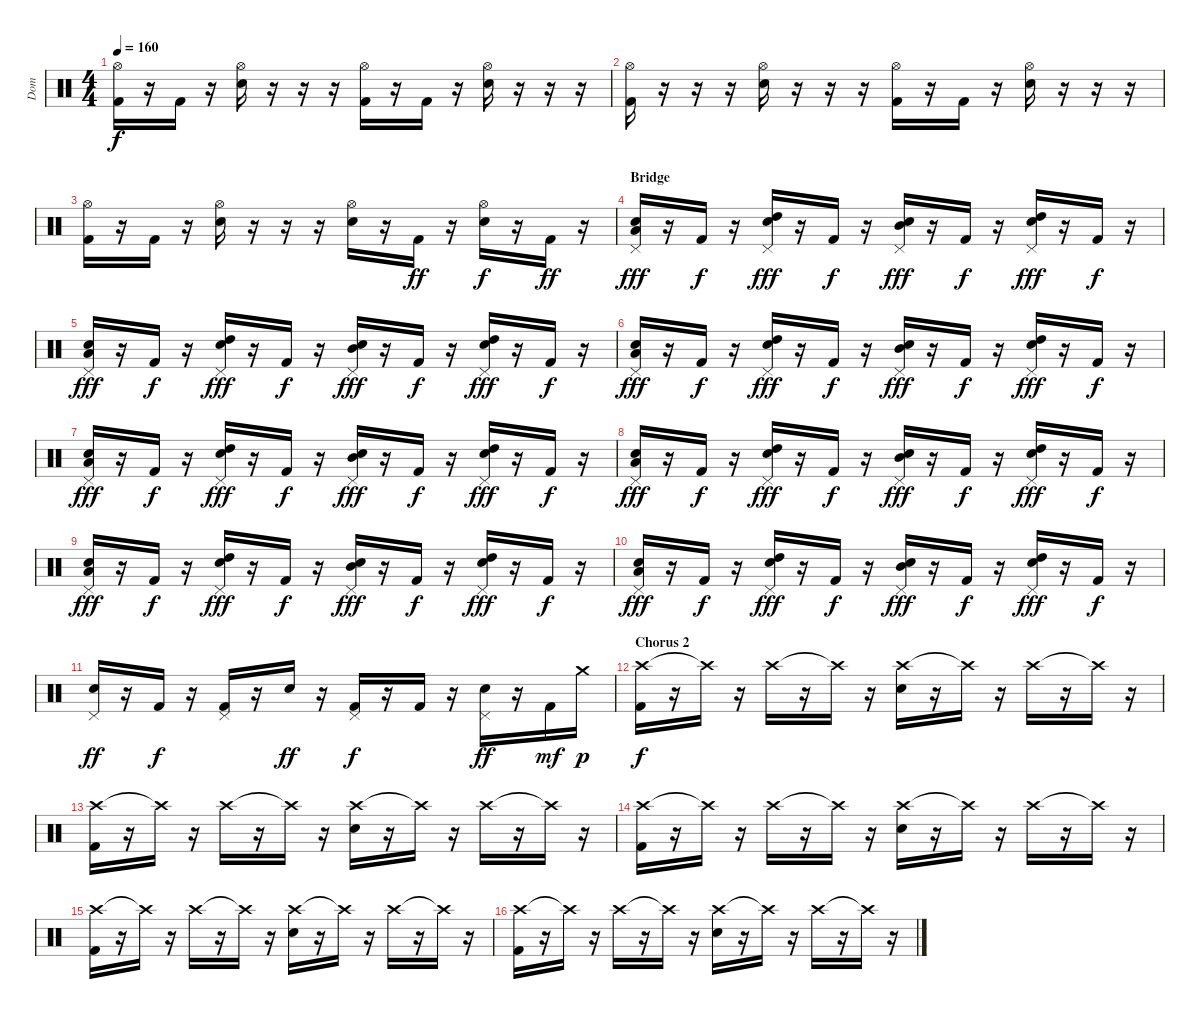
\track ("Dom" "Dom") {instrument percussion}
\staff {score}
\articulation defaults
\ts (4 4)
\tempo 160
\clef neutral
\ks c
("Hi-Hat (open)" "Kick (hit) 2").16{dy f} r.16 "Kick (hit) 2".16 r.16 ("Hi-Hat (open)" "Electric Snare (hit)").16 r.16 r.16 r.16 ("Hi-Hat (open)" "Kick (hit) 2").16 r.16 "Kick (hit) 2".16 r.16 ("Hi-Hat (open)" "Electric Snare (hit)").16 r.16 r.16 r.16 |
("Hi-Hat (open)" "Kick (hit) 2").16 r.16 r.16 r.16 ("Hi-Hat (open)" "Electric Snare (hit)").16 r.16 r.16 r.16 ("Hi-Hat (open)" "Kick (hit) 2").16 r.16 "Kick (hit) 2".16 r.16 ("Hi-Hat (open)" "Electric Snare (hit)").16 r.16 r.16 r.16 |
("Hi-Hat (open)" "Kick (hit) 2").16 r.16 "Kick (hit) 2".16 r.16 ("Hi-Hat (open)" "Electric Snare (hit)").16 r.16 r.16 r.16 ("Hi-Hat (open)" "Electric Snare (hit)").16 r.16 "Kick (hit) 2".16{dy ff} r.16 ("Hi-Hat (open)" "Electric Snare (hit)").16{dy f} r.16 "Kick (hit) 2".16{dy ff} r.16 |
\section ("" "Bridge")
("Pedal Hi-Hat (hit)" "Low Tom (hit)" "Electric Snare (hit)").16{dy fff} r.16 "Kick (hit) 2".16{dy f} r.16 ("Pedal Hi-Hat (hit)" "High Tom (hit)" "Electric Snare (hit)").16{dy fff} r.16 "Kick (hit) 2".16{dy f} r.16 ("Pedal Hi-Hat (hit)" "Mid Tom (hit)" "Electric Snare (hit)").16{dy fff} r.16 "Kick (hit) 2".16{dy f} r.16 ("Pedal Hi-Hat (hit)" "High Tom (hit)" "Electric Snare (hit)").16{dy fff} r.16 "Kick (hit) 2".16{dy f} r.16 |
("Pedal Hi-Hat (hit)" "Low Tom (hit)" "Electric Snare (hit)").16{dy fff} r.16 "Kick (hit) 2".16{dy f} r.16 ("Pedal Hi-Hat (hit)" "High Tom (hit)" "Electric Snare (hit)").16{dy fff} r.16 "Kick (hit) 2".16{dy f} r.16 ("Pedal Hi-Hat (hit)" "Mid Tom (hit)" "Electric Snare (hit)").16{dy fff} r.16 "Kick (hit) 2".16{dy f} r.16 ("Pedal Hi-Hat (hit)" "High Tom (hit)" "Electric Snare (hit)").16{dy fff} r.16 "Kick (hit) 2".16{dy f} r.16 |
("Pedal Hi-Hat (hit)" "Low Tom (hit)" "Electric Snare (hit)").16{dy fff} r.16 "Kick (hit) 2".16{dy f} r.16 ("Pedal Hi-Hat (hit)" "High Tom (hit)" "Electric Snare (hit)").16{dy fff} r.16 "Kick (hit) 2".16{dy f} r.16 ("Pedal Hi-Hat (hit)" "Mid Tom (hit)" "Electric Snare (hit)").16{dy fff} r.16 "Kick (hit) 2".16{dy f} r.16 ("Pedal Hi-Hat (hit)" "High Tom (hit)" "Electric Snare (hit)").16{dy fff} r.16 "Kick (hit) 2".16{dy f} r.16 |
("Pedal Hi-Hat (hit)" "Low Tom (hit)" "Electric Snare (hit)").16{dy fff} r.16 "Kick (hit) 2".16{dy f} r.16 ("Pedal Hi-Hat (hit)" "High Tom (hit)" "Electric Snare (hit)").16{dy fff} r.16 "Kick (hit) 2".16{dy f} r.16 ("Pedal Hi-Hat (hit)" "Mid Tom (hit)" "Electric Snare (hit)").16{dy fff} r.16 "Kick (hit) 2".16{dy f} r.16 ("Pedal Hi-Hat (hit)" "High Tom (hit)" "Electric Snare (hit)").16{dy fff} r.16 "Kick (hit) 2".16{dy f} r.16 |
("Pedal Hi-Hat (hit)" "Low Tom (hit)" "Electric Snare (hit)").16{dy fff} r.16 "Kick (hit) 2".16{dy f} r.16 ("Pedal Hi-Hat (hit)" "High Tom (hit)" "Electric Snare (hit)").16{dy fff} r.16 "Kick (hit) 2".16{dy f} r.16 ("Pedal Hi-Hat (hit)" "Mid Tom (hit)" "Electric Snare (hit)").16{dy fff} r.16 "Kick (hit) 2".16{dy f} r.16 ("Pedal Hi-Hat (hit)" "High Tom (hit)" "Electric Snare (hit)").16{dy fff} r.16 "Kick (hit) 2".16{dy f} r.16 |
("Pedal Hi-Hat (hit)" "Low Tom (hit)" "Electric Snare (hit)").16{dy fff} r.16 "Kick (hit) 2".16{dy f} r.16 ("Pedal Hi-Hat (hit)" "High Tom (hit)" "Electric Snare (hit)").16{dy fff} r.16 "Kick (hit) 2".16{dy f} r.16 ("Pedal Hi-Hat (hit)" "Mid Tom (hit)" "Electric Snare (hit)").16{dy fff} r.16 "Kick (hit) 2".16{dy f} r.16 ("Pedal Hi-Hat (hit)" "High Tom (hit)" "Electric Snare (hit)").16{dy fff} r.16 "Kick (hit) 2".16{dy f} r.16 |
("Pedal Hi-Hat (hit)" "Low Tom (hit)" "Electric Snare (hit)").16{dy fff} r.16 "Kick (hit) 2".16{dy f} r.16 ("Pedal Hi-Hat (hit)" "High Tom (hit)" "Electric Snare (hit)").16{dy fff} r.16 "Kick (hit) 2".16{dy f} r.16 ("Pedal Hi-Hat (hit)" "Mid Tom (hit)" "Electric Snare (hit)").16{dy fff} r.16 "Kick (hit) 2".16{dy f} r.16 ("Pedal Hi-Hat (hit)" "High Tom (hit)" "Electric Snare (hit)").16{dy fff} r.16 "Kick (hit) 2".16{dy f} r.16 |
("Pedal Hi-Hat (hit)" "Electric Snare (hit)").16{dy ff} r.16 "Kick (hit) 2".16{dy f} r.16 ("Pedal Hi-Hat (hit)" "Kick (hit) 2").16 r.16 "Electric Snare (hit)".16{dy ff} r.16 ("Pedal Hi-Hat (hit)" "Kick (hit) 2").16{dy f} r.16 "Kick (hit) 2".16 r.16 ("Pedal Hi-Hat (hit)" "Electric Snare (hit)").16{dy ff} r.16 "Kick (hit) 2".16{dy mf} "Crash medium (hit)".16{dy p} |
\section ("" "Chorus 2")
("Crash high (hit)" "Kick (hit) 2").16{dy f} r.16 "Crash high (hit)"{t}.16 r.16 "Crash high (hit)".16 r.16 "Crash high (hit)"{t}.16 r.16 ("Crash high (hit)" "Electric Snare (hit)").16 r.16 "Crash high (hit)"{t}.16 r.16 "Crash high (hit)".16 r.16 "Crash high (hit)"{t}.16 r.16 |
("Crash high (hit)" "Kick (hit) 2").16 r.16 "Crash high (hit)"{t}.16 r.16 "Crash high (hit)".16 r.16 "Crash high (hit)"{t}.16 r.16 ("Crash high (hit)" "Electric Snare (hit)").16 r.16 "Crash high (hit)"{t}.16 r.16 "Crash high (hit)".16 r.16 "Crash high (hit)"{t}.16 r.16 |
("Crash high (hit)" "Kick (hit) 2").16 r.16 "Crash high (hit)"{t}.16 r.16 "Crash high (hit)".16 r.16 "Crash high (hit)"{t}.16 r.16 ("Crash high (hit)" "Electric Snare (hit)").16 r.16 "Crash high (hit)"{t}.16 r.16 "Crash high (hit)".16 r.16 "Crash high (hit)"{t}.16 r.16 |
("Crash high (hit)" "Kick (hit) 2").16 r.16 "Crash high (hit)"{t}.16 r.16 "Crash high (hit)".16 r.16 "Crash high (hit)"{t}.16 r.16 ("Crash high (hit)" "Electric Snare (hit)").16 r.16 "Crash high (hit)"{t}.16 r.16 "Crash high (hit)".16 r.16 "Crash high (hit)"{t}.16 r.16 |
("Crash high (hit)" "Kick (hit) 2").16 r.16 "Crash high (hit)"{t}.16 r.16 "Crash high (hit)".16 r.16 "Crash high (hit)"{t}.16 r.16 ("Crash high (hit)" "Electric Snare (hit)").16 r.16 "Crash high (hit)"{t}.16 r.16 "Crash high (hit)".16 r.16 "Crash high (hit)"{t}.16 r.16
